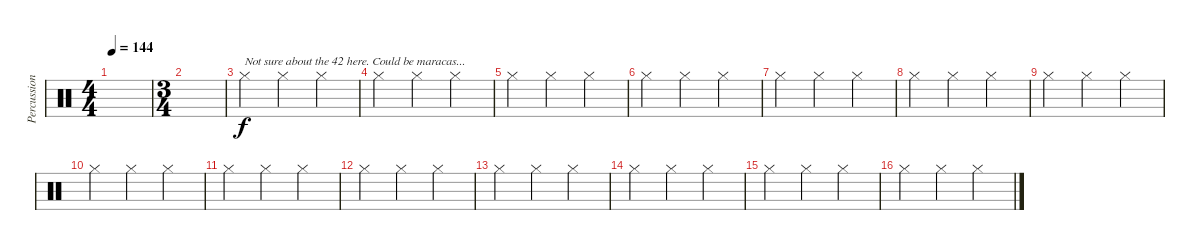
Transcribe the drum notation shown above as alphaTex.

\track ("Percussions 2" "Percussion") {instrument percussion}
\staff {score}
\articulation defaults
\ts (4 4)
\tempo 144
\clef neutral
\ks c
|
\ts (3 4)
|
"Hi-Hat (closed)".4{txt "Not sure about the 42 here. Could be maracas..."} "Hi-Hat (closed)".4 "Hi-Hat (closed)".4 |
"Hi-Hat (closed)".4 "Hi-Hat (closed)".4 "Hi-Hat (closed)".4 |
"Hi-Hat (closed)".4 "Hi-Hat (closed)".4 "Hi-Hat (closed)".4 |
"Hi-Hat (closed)".4 "Hi-Hat (closed)".4 "Hi-Hat (closed)".4 |
"Hi-Hat (closed)".4 "Hi-Hat (closed)".4 "Hi-Hat (closed)".4 |
"Hi-Hat (closed)".4 "Hi-Hat (closed)".4 "Hi-Hat (closed)".4 |
"Hi-Hat (closed)".4 "Hi-Hat (closed)".4 "Hi-Hat (closed)".4 |
"Hi-Hat (closed)".4 "Hi-Hat (closed)".4 "Hi-Hat (closed)".4 |
"Hi-Hat (closed)".4 "Hi-Hat (closed)".4 "Hi-Hat (closed)".4 |
"Hi-Hat (closed)".4 "Hi-Hat (closed)".4 "Hi-Hat (closed)".4 |
"Hi-Hat (closed)".4 "Hi-Hat (closed)".4 "Hi-Hat (closed)".4 |
"Hi-Hat (closed)".4 "Hi-Hat (closed)".4 "Hi-Hat (closed)".4 |
"Hi-Hat (closed)".4 "Hi-Hat (closed)".4 "Hi-Hat (closed)".4 |
"Hi-Hat (closed)".4 "Hi-Hat (closed)".4 "Hi-Hat (closed)".4
